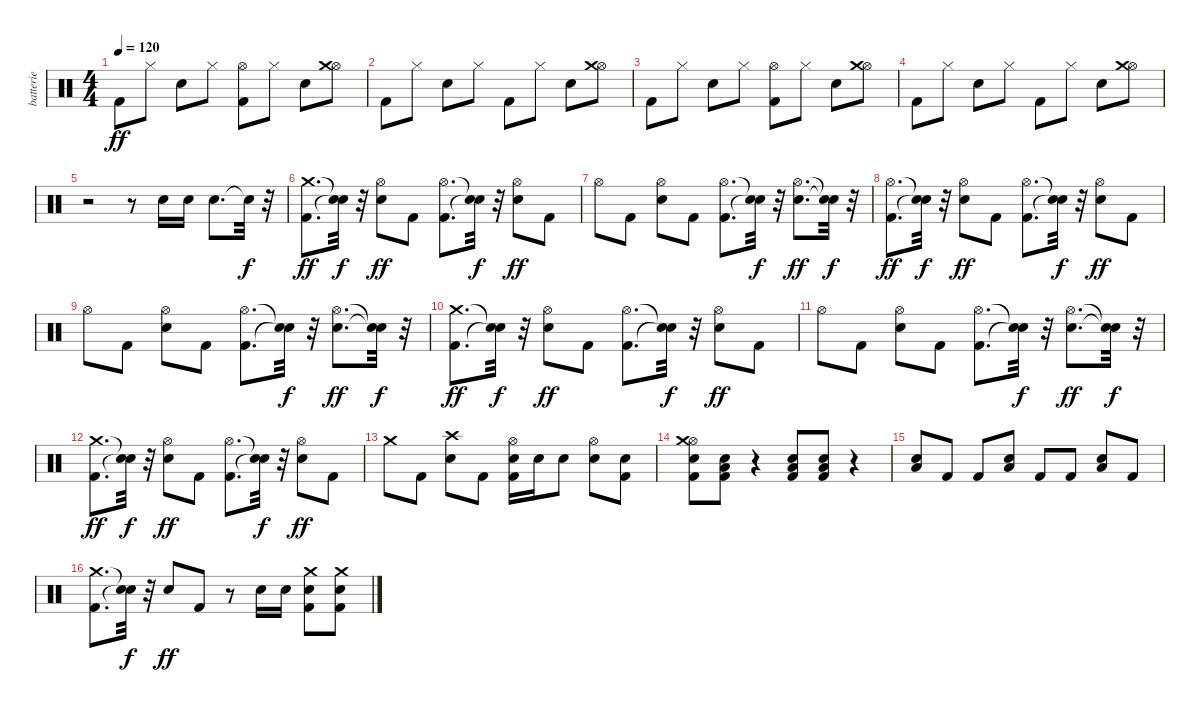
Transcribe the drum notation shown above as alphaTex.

\track ("batterie" "batterie") {instrument percussion}
\staff {score}
\articulation defaults
\ts (4 4)
\tempo 120
\clef neutral
\ks c "Kick (hit) 2".8{dy ff} "Hi-Hat (closed)".8 "Electric Snare (hit)".8 "Hi-Hat (closed)".8
("Kick (hit) 2" "Hi-Hat (open)").8 "Hi-Hat (closed)".8 "Electric Snare (hit)".8 ("Hi-Hat (open)" "Crash medium (hit)").8 |
"Kick (hit) 2".8 "Hi-Hat (closed)".8 "Electric Snare (hit)".8 "Hi-Hat (closed)".8 "Kick (hit) 2".8 "Hi-Hat (closed)".8 "Electric Snare (hit)".8 ("Hi-Hat (open)" "Crash medium (hit)").8 |
"Kick (hit) 2".8 "Hi-Hat (closed)".8 "Electric Snare (hit)".8 "Hi-Hat (closed)".8 ("Kick (hit) 2" "Hi-Hat (open)").8 "Hi-Hat (closed)".8 "Electric Snare (hit)".8 ("Hi-Hat (open)" "Crash medium (hit)").8 |
"Kick (hit) 2".8 "Hi-Hat (closed)".8 "Electric Snare (hit)".8 "Hi-Hat (closed)".8 "Kick (hit) 2".8 "Hi-Hat (closed)".8 "Electric Snare (hit)".8 ("Hi-Hat (open)" "Crash medium (hit)").8 |
r.2 r.8 "Electric Snare (hit)".16 "Electric Snare (hit)".16 "Electric Snare (hit)".8{d} "Snare (hit)"{t}.32{dy f} r.32 |
("Kick (hit) 2" "Crash medium (hit)").8{d dy ff} ("Snare (hit)"{t} "Snare (hit)"{t}).32{dy f} r.32 ("Electric Snare (hit)" "Hi-Hat (open)").8{dy ff} "Kick (hit) 2".8 ("Kick (hit) 2" "Hi-Hat (open)").8{d} ("Snare (hit)"{t} "Snare (hit)"{t}).32{dy f} r.32 ("Electric Snare (hit)" "Hi-Hat (open)").8{dy ff} "Kick (hit) 2".8 |
"Hi-Hat (open)".8 "Kick (hit) 2".8 ("Electric Snare (hit)" "Hi-Hat (open)").8 "Kick (hit) 2".8 ("Kick (hit) 2" "Hi-Hat (open)").8{d} ("Snare (hit)"{t} "Snare (hit)"{t}).32{dy f} r.32 ("Electric Snare (hit)" "Hi-Hat (open)").8{d dy ff} ("Snare (hit)"{t} "Snare (hit)"{t}).32{dy f} r.32 |
("Kick (hit) 2" "Hi-Hat (open)").8{d dy ff} ("Snare (hit)"{t} "Snare (hit)"{t}).32{dy f} r.32 ("Electric Snare (hit)" "Hi-Hat (open)").8{dy ff} "Kick (hit) 2".8 ("Kick (hit) 2" "Hi-Hat (open)").8{d} ("Snare (hit)"{t} "Snare (hit)"{t}).32{dy f} r.32 ("Electric Snare (hit)" "Hi-Hat (open)").8{dy ff} "Kick (hit) 2".8 |
"Hi-Hat (open)".8 "Kick (hit) 2".8 ("Electric Snare (hit)" "Hi-Hat (open)").8 "Kick (hit) 2".8 ("Kick (hit) 2" "Hi-Hat (open)").8{d} ("Snare (hit)"{t} "Snare (hit)"{t}).32{dy f} r.32 ("Electric Snare (hit)" "Hi-Hat (open)").8{d dy ff} ("Snare (hit)"{t} "Snare (hit)"{t}).32{dy f} r.32 |
("Kick (hit) 2" "Crash medium (hit)").8{d dy ff} ("Snare (hit)"{t} "Snare (hit)"{t}).32{dy f} r.32 ("Electric Snare (hit)" "Hi-Hat (open)").8{dy ff} "Kick (hit) 2".8 ("Kick (hit) 2" "Hi-Hat (open)").8{d} ("Snare (hit)"{t} "Snare (hit)"{t}).32{dy f} r.32 ("Electric Snare (hit)" "Hi-Hat (open)").8{dy ff} "Kick (hit) 2".8 |
"Hi-Hat (open)".8 "Kick (hit) 2".8 ("Electric Snare (hit)" "Hi-Hat (open)").8 "Kick (hit) 2".8 ("Kick (hit) 2" "Hi-Hat (open)").8{d} ("Snare (hit)"{t} "Snare (hit)"{t}).32{dy f} r.32 ("Electric Snare (hit)" "Hi-Hat (open)").8{d dy ff} ("Snare (hit)"{t} "Snare (hit)"{t}).32{dy f} r.32 |
("Kick (hit) 2" "Crash medium (hit)").8{d dy ff} ("Snare (hit)"{t} "Snare (hit)"{t}).32{dy f} r.32 ("Electric Snare (hit)" "Hi-Hat (open)").8{dy ff} "Kick (hit) 2".8 ("Kick (hit) 2" "Hi-Hat (open)").8{d} ("Snare (hit)"{t} "Snare (hit)"{t}).32{dy f} r.32 ("Electric Snare (hit)" "Hi-Hat (open)").8{dy ff} "Kick (hit) 2".8 |
"Crash medium (hit)".8 "Kick (hit) 2".8 ("Electric Snare (hit)" "Crash high (hit)").8 "Kick (hit) 2".8 ("Kick (hit) 2" "Electric Snare (hit)" "Hi-Hat (open)").16 "Electric Snare (hit)".16 "Electric Snare (hit)".8 ("Electric Snare (hit)" "Hi-Hat (open)").8 ("Kick (hit) 2" "Electric Snare (hit)").8 |
("Kick (hit) 2" "Electric Snare (hit)" "Hi-Hat (open)" "Crash medium (hit)").8 ("Kick (hit) 2" "Electric Snare (hit)" "Low Tom (hit)").8 r.4 ("Kick (hit) 2" "Electric Snare (hit)" "Low Tom (hit)").8 ("Kick (hit) 2" "Electric Snare (hit)" "Low Tom (hit)").8 r.4 |
("Electric Snare (hit)" "Low Floor Tom (hit)").8 "Kick (hit) 2".8 "Kick (hit) 2".8 ("Electric Snare (hit)" "Low Floor Tom (hit)").8 "Kick (hit) 2".8 "Kick (hit) 2".8 ("Electric Snare (hit)" "Low Floor Tom (hit)").8 "Kick (hit) 2".8 |
("Kick (hit) 2" "Crash medium (hit)").8{d} ("Snare (hit)"{t} "Snare (hit)"{t}).32{dy f} r.32 "Electric Snare (hit)".8{dy ff} "Kick (hit) 2".8 r.8 "Electric Snare (hit)".16 "Electric Snare (hit)".16 ("Kick (hit) 2" "Electric Snare (hit)" "Crash medium (hit)").8 ("Kick (hit) 2" "Electric Snare (hit)" "Crash medium (hit)").8
